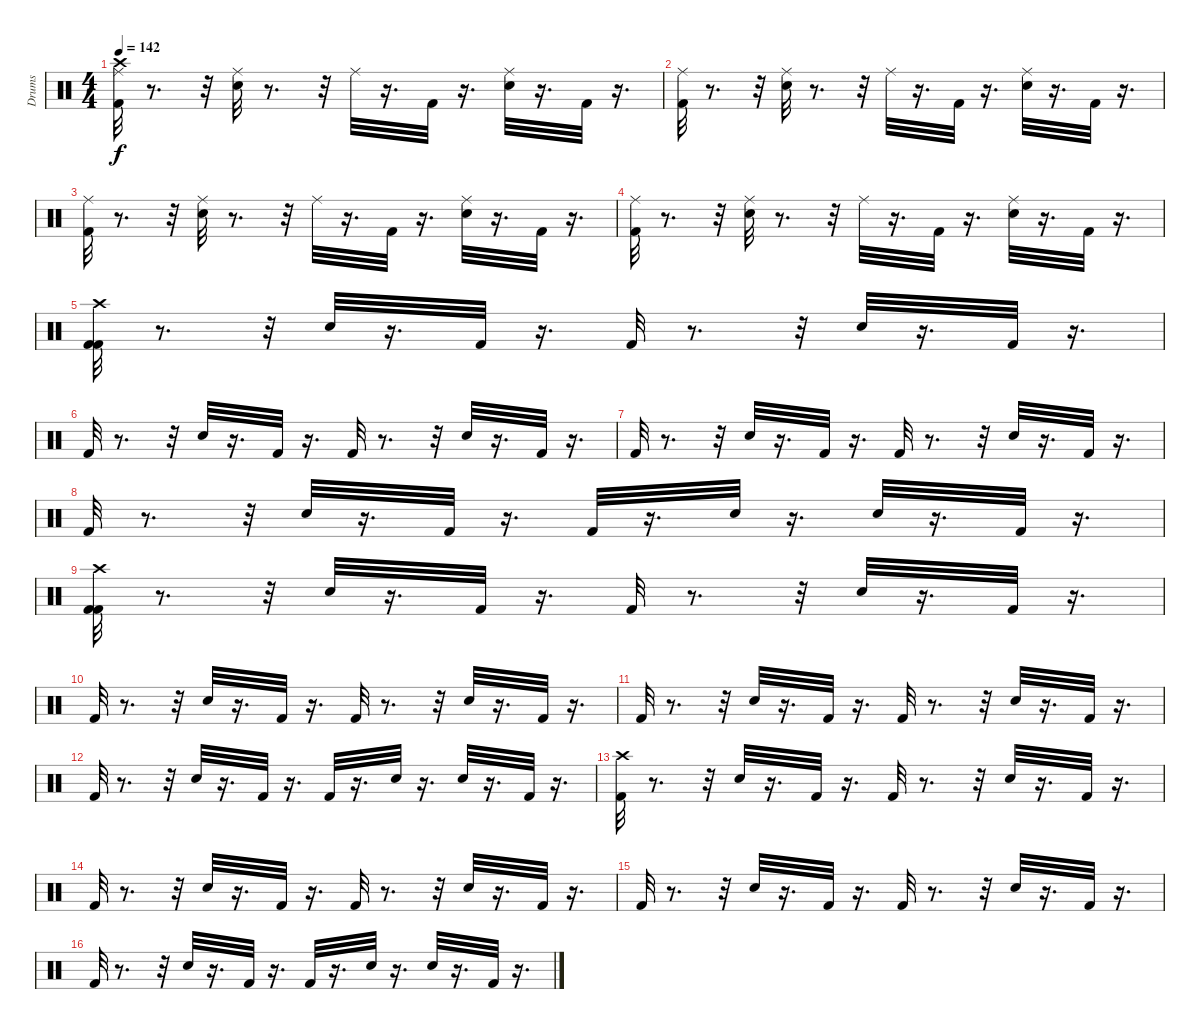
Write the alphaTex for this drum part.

\track ("Drums" "Drums") {instrument percussion}
\staff {score}
\articulation defaults
\ts (4 4)
\tempo 142
\clef neutral
\ks c
("Ride (middle)" "Kick (hit) 2" "Crash high (hit)").32{dy f} r.8{d} r.32 ("Ride (middle)" "Snare (hit) 2").32 r.8{d} r.32 "Ride (middle)".32 r.16{d} "Kick (hit) 2".32 r.16{d} ("Ride (middle)" "Snare (hit) 2").32 r.16{d} "Kick (hit) 2".32 r.16{d} |
("Ride (middle)" "Kick (hit) 2").32 r.8{d} r.32 ("Ride (middle)" "Snare (hit) 2").32 r.8{d} r.32 "Ride (middle)".32 r.16{d} "Kick (hit) 2".32 r.16{d} ("Ride (middle)" "Snare (hit) 2").32 r.16{d} "Kick (hit) 2".32 r.16{d} |
("Ride (middle)" "Kick (hit) 2").32 r.8{d} r.32 ("Ride (middle)" "Snare (hit) 2").32 r.8{d} r.32 "Ride (middle)".32 r.16{d} "Kick (hit) 2".32 r.16{d} ("Ride (middle)" "Snare (hit) 2").32 r.16{d} "Kick (hit) 2".32 r.16{d} |
("Ride (middle)" "Kick (hit) 2").32 r.8{d} r.32 ("Ride (middle)" "Snare (hit) 2").32 r.8{d} r.32 "Ride (middle)".32 r.16{d} "Kick (hit) 2".32 r.16{d} ("Ride (middle)" "Snare (hit) 2").32 r.16{d} "Kick (hit) 2".32 r.16{d} |
("Kick (hit) 2" "Crash high (hit)" "Kick (hit) 2").32 r.8{d} r.32 "Snare (hit) 2".32 r.16{d} "Kick (hit) 2".32 r.16{d} "Kick (hit) 2".32 r.8{d} r.32 "Snare (hit) 2".32 r.16{d} "Kick (hit) 2".32 r.16{d} |
"Kick (hit) 2".32 r.8{d} r.32 "Snare (hit) 2".32 r.16{d} "Kick (hit) 2".32 r.16{d} "Kick (hit) 2".32 r.8{d} r.32 "Snare (hit) 2".32 r.16{d} "Kick (hit) 2".32 r.16{d} |
"Kick (hit) 2".32 r.8{d} r.32 "Snare (hit) 2".32 r.16{d} "Kick (hit) 2".32 r.16{d} "Kick (hit) 2".32 r.8{d} r.32 "Snare (hit) 2".32 r.16{d} "Kick (hit) 2".32 r.16{d} |
"Kick (hit) 2".32 r.8{d} r.32 "Snare (hit) 2".32 r.16{d} "Kick (hit) 2".32 r.16{d} "Kick (hit) 2".32 r.16{d} "Snare (hit) 2".32 r.16{d} "Snare (hit) 2".32 r.16{d} "Kick (hit) 2".32 r.16{d} |
("Kick (hit) 2" "Crash high (hit)" "Kick (hit) 2").32 r.8{d} r.32 "Snare (hit) 2".32 r.16{d} "Kick (hit) 2".32 r.16{d} "Kick (hit) 2".32 r.8{d} r.32 "Snare (hit) 2".32 r.16{d} "Kick (hit) 2".32 r.16{d} |
"Kick (hit) 2".32 r.8{d} r.32 "Snare (hit) 2".32 r.16{d} "Kick (hit) 2".32 r.16{d} "Kick (hit) 2".32 r.8{d} r.32 "Snare (hit) 2".32 r.16{d} "Kick (hit) 2".32 r.16{d} |
"Kick (hit) 2".32 r.8{d} r.32 "Snare (hit) 2".32 r.16{d} "Kick (hit) 2".32 r.16{d} "Kick (hit) 2".32 r.8{d} r.32 "Snare (hit) 2".32 r.16{d} "Kick (hit) 2".32 r.16{d} |
"Kick (hit) 2".32 r.8{d} r.32 "Snare (hit) 2".32 r.16{d} "Kick (hit) 2".32 r.16{d} "Kick (hit) 2".32 r.16{d} "Snare (hit) 2".32 r.16{d} "Snare (hit) 2".32 r.16{d} "Kick (hit) 2".32 r.16{d} |
("Crash high (hit)" "Kick (hit) 2").32 r.8{d} r.32 "Snare (hit) 2".32 r.16{d} "Kick (hit) 2".32 r.16{d} "Kick (hit) 2".32 r.8{d} r.32 "Snare (hit) 2".32 r.16{d} "Kick (hit) 2".32 r.16{d} |
"Kick (hit) 2".32 r.8{d} r.32 "Snare (hit) 2".32 r.16{d} "Kick (hit) 2".32 r.16{d} "Kick (hit) 2".32 r.8{d} r.32 "Snare (hit) 2".32 r.16{d} "Kick (hit) 2".32 r.16{d} |
"Kick (hit) 2".32 r.8{d} r.32 "Snare (hit) 2".32 r.16{d} "Kick (hit) 2".32 r.16{d} "Kick (hit) 2".32 r.8{d} r.32 "Snare (hit) 2".32 r.16{d} "Kick (hit) 2".32 r.16{d} |
"Kick (hit) 2".32 r.8{d} r.32 "Snare (hit) 2".32 r.16{d} "Kick (hit) 2".32 r.16{d} "Kick (hit) 2".32 r.16{d} "Snare (hit) 2".32 r.16{d} "Snare (hit) 2".32 r.16{d} "Kick (hit) 2".32 r.16{d}
